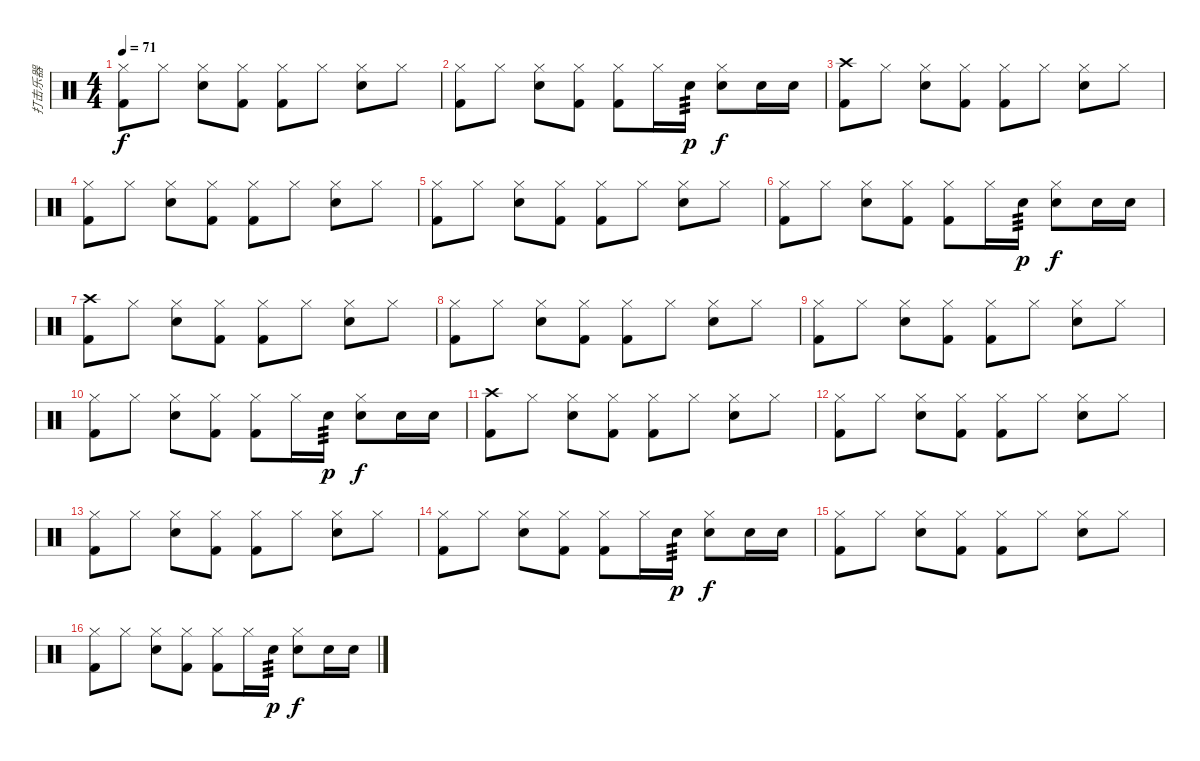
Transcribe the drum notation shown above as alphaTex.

\track ("打击乐器" "打击乐器") {instrument percussion}
\staff {score}
\articulation defaults
\ts (4 4)
\tempo 71
\clef neutral
\ks c
("Hi-Hat (closed)" "Kick (hit) 2").8{dy f} "Hi-Hat (closed)".8 ("Hi-Hat (closed)" "Electric Snare (hit)").8 ("Hi-Hat (closed)" "Kick (hit) 2").8 ("Hi-Hat (closed)" "Kick (hit) 2").8 "Hi-Hat (closed)".8 ("Hi-Hat (closed)" "Electric Snare (hit)").8 "Hi-Hat (closed)".8 |
("Hi-Hat (closed)" "Kick (hit) 2").8 "Hi-Hat (closed)".8 ("Hi-Hat (closed)" "Electric Snare (hit)").8 ("Hi-Hat (closed)" "Kick (hit) 2").8 ("Hi-Hat (closed)" "Kick (hit) 2").8 "Hi-Hat (closed)".16 "Electric Snare (hit)".16{tp 3 dy p} ("Hi-Hat (closed)" "Electric Snare (hit)").8{dy f} "Electric Snare (hit)".16 "Electric Snare (hit)".16 |
("Crash high (hit)" "Kick (hit) 2").8 "Hi-Hat (closed)".8 ("Hi-Hat (closed)" "Electric Snare (hit)").8 ("Hi-Hat (closed)" "Kick (hit) 2").8 ("Hi-Hat (closed)" "Kick (hit) 2").8 "Hi-Hat (closed)".8 ("Hi-Hat (closed)" "Electric Snare (hit)").8 "Hi-Hat (closed)".8 |
("Hi-Hat (closed)" "Kick (hit) 2").8 "Hi-Hat (closed)".8 ("Hi-Hat (closed)" "Electric Snare (hit)").8 ("Hi-Hat (closed)" "Kick (hit) 2").8 ("Hi-Hat (closed)" "Kick (hit) 2").8 "Hi-Hat (closed)".8 ("Hi-Hat (closed)" "Electric Snare (hit)").8 "Hi-Hat (closed)".8 |
("Hi-Hat (closed)" "Kick (hit) 2").8 "Hi-Hat (closed)".8 ("Hi-Hat (closed)" "Electric Snare (hit)").8 ("Hi-Hat (closed)" "Kick (hit) 2").8 ("Hi-Hat (closed)" "Kick (hit) 2").8 "Hi-Hat (closed)".8 ("Hi-Hat (closed)" "Electric Snare (hit)").8 "Hi-Hat (closed)".8 |
("Hi-Hat (closed)" "Kick (hit) 2").8 "Hi-Hat (closed)".8 ("Hi-Hat (closed)" "Electric Snare (hit)").8 ("Hi-Hat (closed)" "Kick (hit) 2").8 ("Hi-Hat (closed)" "Kick (hit) 2").8 "Hi-Hat (closed)".16 "Electric Snare (hit)".16{tp 3 dy p} ("Hi-Hat (closed)" "Electric Snare (hit)").8{dy f} "Electric Snare (hit)".16 "Electric Snare (hit)".16 |
("Crash high (hit)" "Kick (hit) 2").8 "Hi-Hat (closed)".8 ("Hi-Hat (closed)" "Electric Snare (hit)").8 ("Hi-Hat (closed)" "Kick (hit) 2").8 ("Hi-Hat (closed)" "Kick (hit) 2").8 "Hi-Hat (closed)".8 ("Hi-Hat (closed)" "Electric Snare (hit)").8 "Hi-Hat (closed)".8 |
("Hi-Hat (closed)" "Kick (hit) 2").8 "Hi-Hat (closed)".8 ("Hi-Hat (closed)" "Electric Snare (hit)").8 ("Hi-Hat (closed)" "Kick (hit) 2").8 ("Hi-Hat (closed)" "Kick (hit) 2").8 "Hi-Hat (closed)".8 ("Hi-Hat (closed)" "Electric Snare (hit)").8 "Hi-Hat (closed)".8 |
("Hi-Hat (closed)" "Kick (hit) 2").8 "Hi-Hat (closed)".8 ("Hi-Hat (closed)" "Electric Snare (hit)").8 ("Hi-Hat (closed)" "Kick (hit) 2").8 ("Hi-Hat (closed)" "Kick (hit) 2").8 "Hi-Hat (closed)".8 ("Hi-Hat (closed)" "Electric Snare (hit)").8 "Hi-Hat (closed)".8 |
("Hi-Hat (closed)" "Kick (hit) 2").8 "Hi-Hat (closed)".8 ("Hi-Hat (closed)" "Electric Snare (hit)").8 ("Hi-Hat (closed)" "Kick (hit) 2").8 ("Hi-Hat (closed)" "Kick (hit) 2").8 "Hi-Hat (closed)".16 "Electric Snare (hit)".16{tp 3 dy p} ("Hi-Hat (closed)" "Electric Snare (hit)").8{dy f} "Electric Snare (hit)".16 "Electric Snare (hit)".16 |
("Crash high (hit)" "Kick (hit) 2").8 "Hi-Hat (closed)".8 ("Hi-Hat (closed)" "Electric Snare (hit)").8 ("Hi-Hat (closed)" "Kick (hit) 2").8 ("Hi-Hat (closed)" "Kick (hit) 2").8 "Hi-Hat (closed)".8 ("Hi-Hat (closed)" "Electric Snare (hit)").8 "Hi-Hat (closed)".8 |
("Hi-Hat (closed)" "Kick (hit) 2").8 "Hi-Hat (closed)".8 ("Hi-Hat (closed)" "Electric Snare (hit)").8 ("Hi-Hat (closed)" "Kick (hit) 2").8 ("Hi-Hat (closed)" "Kick (hit) 2").8 "Hi-Hat (closed)".8 ("Hi-Hat (closed)" "Electric Snare (hit)").8 "Hi-Hat (closed)".8 |
("Hi-Hat (closed)" "Kick (hit) 2").8 "Hi-Hat (closed)".8 ("Hi-Hat (closed)" "Electric Snare (hit)").8 ("Hi-Hat (closed)" "Kick (hit) 2").8 ("Hi-Hat (closed)" "Kick (hit) 2").8 "Hi-Hat (closed)".8 ("Hi-Hat (closed)" "Electric Snare (hit)").8 "Hi-Hat (closed)".8 |
("Hi-Hat (closed)" "Kick (hit) 2").8 "Hi-Hat (closed)".8 ("Hi-Hat (closed)" "Electric Snare (hit)").8 ("Hi-Hat (closed)" "Kick (hit) 2").8 ("Hi-Hat (closed)" "Kick (hit) 2").8 "Hi-Hat (closed)".16 "Electric Snare (hit)".16{tp 3 dy p} ("Hi-Hat (closed)" "Electric Snare (hit)").8{dy f} "Electric Snare (hit)".16 "Electric Snare (hit)".16 |
("Hi-Hat (closed)" "Kick (hit) 2").8 "Hi-Hat (closed)".8 ("Hi-Hat (closed)" "Electric Snare (hit)").8 ("Hi-Hat (closed)" "Kick (hit) 2").8 ("Hi-Hat (closed)" "Kick (hit) 2").8 "Hi-Hat (closed)".8 ("Hi-Hat (closed)" "Electric Snare (hit)").8 "Hi-Hat (closed)".8 |
("Hi-Hat (closed)" "Kick (hit) 2").8 "Hi-Hat (closed)".8 ("Hi-Hat (closed)" "Electric Snare (hit)").8 ("Hi-Hat (closed)" "Kick (hit) 2").8 ("Hi-Hat (closed)" "Kick (hit) 2").8 "Hi-Hat (closed)".16 "Electric Snare (hit)".16{tp 3 dy p} ("Hi-Hat (closed)" "Electric Snare (hit)").8{dy f} "Electric Snare (hit)".16 "Electric Snare (hit)".16
